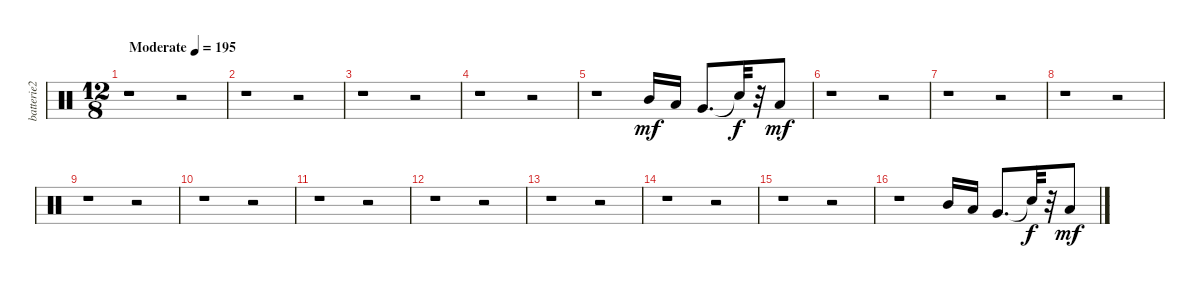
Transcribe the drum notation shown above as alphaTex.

\track ("batterie2" "batterie2") {instrument percussion}
\staff {score}
\articulation defaults
\ts (12 8)
\tempo (195 "Moderate")
\clef neutral
\ks c
r.1{dy mf} r.2 |
r.1 r.2 |
r.1 r.2 |
r.1 r.2 |
r.1 "Mid Tom (hit)".16 "Low Tom (hit)".16 "Very Low Tom (hit)".8{d} "Snare (hit)"{t}.32{dy f} r.32 "Low Floor Tom (hit)".8{dy mf} |
r.1 r.2 |
r.1 r.2 |
r.1 r.2 |
r.1 r.2 |
r.1 r.2 |
r.1 r.2 |
r.1 r.2 |
r.1 r.2 |
r.1 r.2 |
r.1 r.2 |
r.1 "Mid Tom (hit)".16 "Low Tom (hit)".16 "Very Low Tom (hit)".8{d} "Snare (hit)"{t}.32{dy f} r.32 "Low Floor Tom (hit)".8{dy mf}
